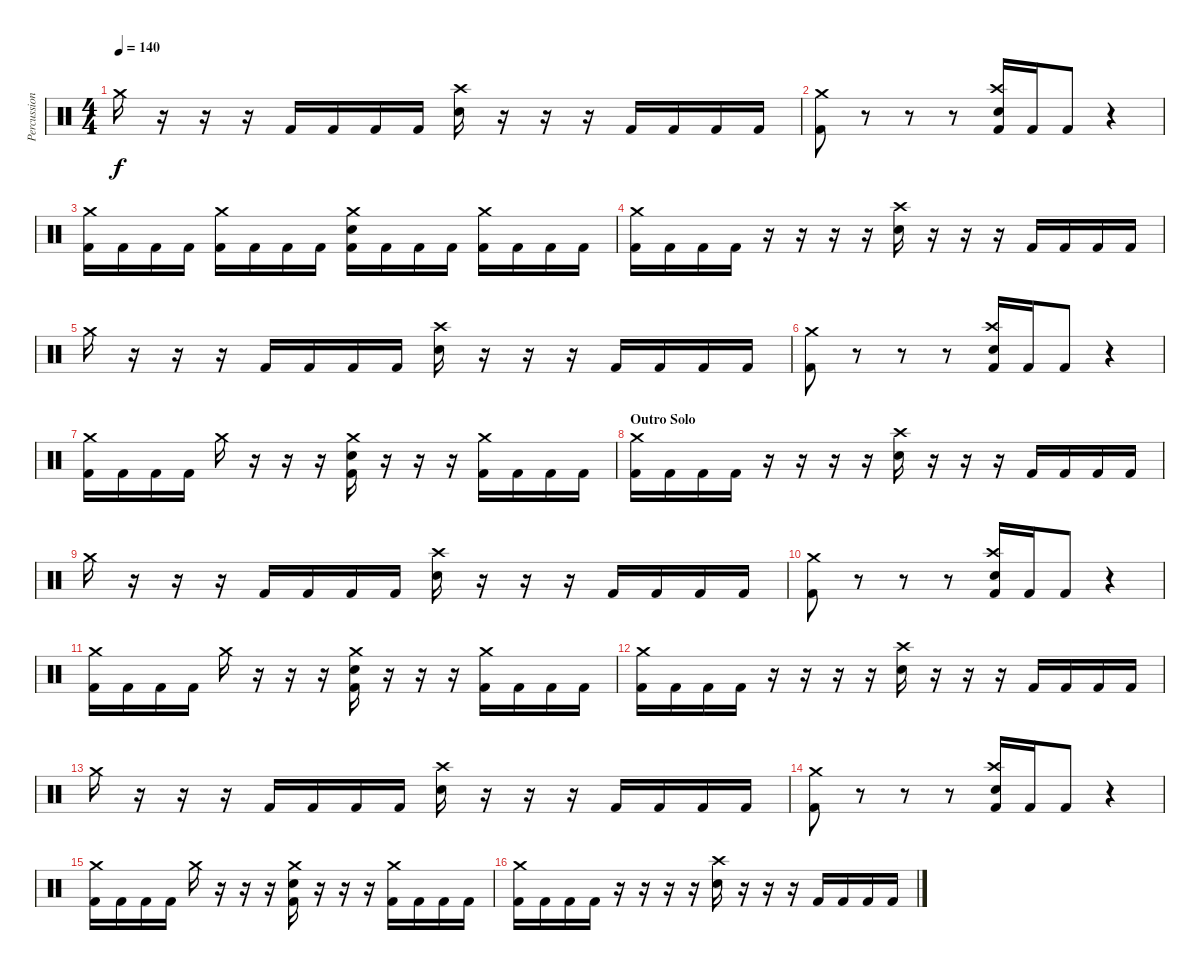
\track ("Percussions" "Percussion") {instrument percussion}
\staff {score}
\articulation defaults
\ts (4 4)
\tempo 140
\clef neutral
\ks c "Crash medium (hit)".16{dy f}
r.16 r.16 r.16 "Kick (hit) 2".16 "Kick (hit) 2".16 "Kick (hit) 2".16 "Kick (hit) 2".16 ("Crash high (hit)" "Snare (hit) 2").16 r.16 r.16 r.16 "Kick (hit) 2".16 "Kick (hit) 2".16 "Kick (hit) 2".16 "Kick (hit) 2".16 |
("Crash medium (hit)" "Kick (hit) 2").8 r.8 r.8 r.8 ("Crash high (hit)" "Snare (hit) 2" "Kick (hit) 2").16 "Kick (hit) 2".16 "Kick (hit) 2".8 r.4 |
("Crash medium (hit)" "Kick (hit) 2").16 "Kick (hit) 2".16 "Kick (hit) 2".16 "Kick (hit) 2".16 ("Crash medium (hit)" "Kick (hit) 2").16 "Kick (hit) 2".16 "Kick (hit) 2".16 "Kick (hit) 2".16 ("Crash medium (hit)" "Snare (hit) 2" "Kick (hit) 2").16 "Kick (hit) 2".16 "Kick (hit) 2".16 "Kick (hit) 2".16 ("Crash medium (hit)" "Kick (hit) 2").16 "Kick (hit) 2".16 "Kick (hit) 2".16 "Kick (hit) 2".16 |
("Crash medium (hit)" "Kick (hit) 2").16 "Kick (hit) 2".16 "Kick (hit) 2".16 "Kick (hit) 2".16 r.16 r.16 r.16 r.16 ("Crash high (hit)" "Snare (hit) 2").16 r.16 r.16 r.16 "Kick (hit) 2".16 "Kick (hit) 2".16 "Kick (hit) 2".16 "Kick (hit) 2".16 |
"Crash medium (hit)".16 r.16 r.16 r.16 "Kick (hit) 2".16 "Kick (hit) 2".16 "Kick (hit) 2".16 "Kick (hit) 2".16 ("Crash high (hit)" "Snare (hit) 2").16 r.16 r.16 r.16 "Kick (hit) 2".16 "Kick (hit) 2".16 "Kick (hit) 2".16 "Kick (hit) 2".16 |
("Crash medium (hit)" "Kick (hit) 2").8 r.8 r.8 r.8 ("Crash high (hit)" "Snare (hit) 2" "Kick (hit) 2").16 "Kick (hit) 2".16 "Kick (hit) 2".8 r.4 |
("Crash medium (hit)" "Kick (hit) 2").16 "Kick (hit) 2".16 "Kick (hit) 2".16 "Kick (hit) 2".16 "Crash medium (hit)".16 r.16 r.16 r.16 ("Crash medium (hit)" "Snare (hit) 2" "Kick (hit) 2").16 r.16 r.16 r.16 ("Crash medium (hit)" "Kick (hit) 2").16 "Kick (hit) 2".16 "Kick (hit) 2".16 "Kick (hit) 2".16 |
\section ("" "Outro Solo")
("Crash medium (hit)" "Kick (hit) 2").16 "Kick (hit) 2".16 "Kick (hit) 2".16 "Kick (hit) 2".16 r.16 r.16 r.16 r.16 ("Crash high (hit)" "Snare (hit) 2").16 r.16 r.16 r.16 "Kick (hit) 2".16 "Kick (hit) 2".16 "Kick (hit) 2".16 "Kick (hit) 2".16 |
"Crash medium (hit)".16 r.16 r.16 r.16 "Kick (hit) 2".16 "Kick (hit) 2".16 "Kick (hit) 2".16 "Kick (hit) 2".16 ("Crash high (hit)" "Snare (hit) 2").16 r.16 r.16 r.16 "Kick (hit) 2".16 "Kick (hit) 2".16 "Kick (hit) 2".16 "Kick (hit) 2".16 |
("Crash medium (hit)" "Kick (hit) 2").8 r.8 r.8 r.8 ("Crash high (hit)" "Snare (hit) 2" "Kick (hit) 2").16 "Kick (hit) 2".16 "Kick (hit) 2".8 r.4 |
("Crash medium (hit)" "Kick (hit) 2").16 "Kick (hit) 2".16 "Kick (hit) 2".16 "Kick (hit) 2".16 "Crash medium (hit)".16 r.16 r.16 r.16 ("Crash medium (hit)" "Snare (hit) 2" "Kick (hit) 2").16 r.16 r.16 r.16 ("Crash medium (hit)" "Kick (hit) 2").16 "Kick (hit) 2".16 "Kick (hit) 2".16 "Kick (hit) 2".16 |
("Crash medium (hit)" "Kick (hit) 2").16 "Kick (hit) 2".16 "Kick (hit) 2".16 "Kick (hit) 2".16 r.16 r.16 r.16 r.16 ("Crash high (hit)" "Snare (hit) 2").16 r.16 r.16 r.16 "Kick (hit) 2".16 "Kick (hit) 2".16 "Kick (hit) 2".16 "Kick (hit) 2".16 |
"Crash medium (hit)".16 r.16 r.16 r.16 "Kick (hit) 2".16 "Kick (hit) 2".16 "Kick (hit) 2".16 "Kick (hit) 2".16 ("Crash high (hit)" "Snare (hit) 2").16 r.16 r.16 r.16 "Kick (hit) 2".16 "Kick (hit) 2".16 "Kick (hit) 2".16 "Kick (hit) 2".16 |
("Crash medium (hit)" "Kick (hit) 2").8 r.8 r.8 r.8 ("Crash high (hit)" "Snare (hit) 2" "Kick (hit) 2").16 "Kick (hit) 2".16 "Kick (hit) 2".8 r.4 |
("Crash medium (hit)" "Kick (hit) 2").16 "Kick (hit) 2".16 "Kick (hit) 2".16 "Kick (hit) 2".16 "Crash medium (hit)".16 r.16 r.16 r.16 ("Crash medium (hit)" "Snare (hit) 2" "Kick (hit) 2").16 r.16 r.16 r.16 ("Crash medium (hit)" "Kick (hit) 2").16 "Kick (hit) 2".16 "Kick (hit) 2".16 "Kick (hit) 2".16 |
("Crash medium (hit)" "Kick (hit) 2").16 "Kick (hit) 2".16 "Kick (hit) 2".16 "Kick (hit) 2".16 r.16 r.16 r.16 r.16 ("Crash high (hit)" "Snare (hit) 2").16 r.16 r.16 r.16 "Kick (hit) 2".16 "Kick (hit) 2".16 "Kick (hit) 2".16 "Kick (hit) 2".16
